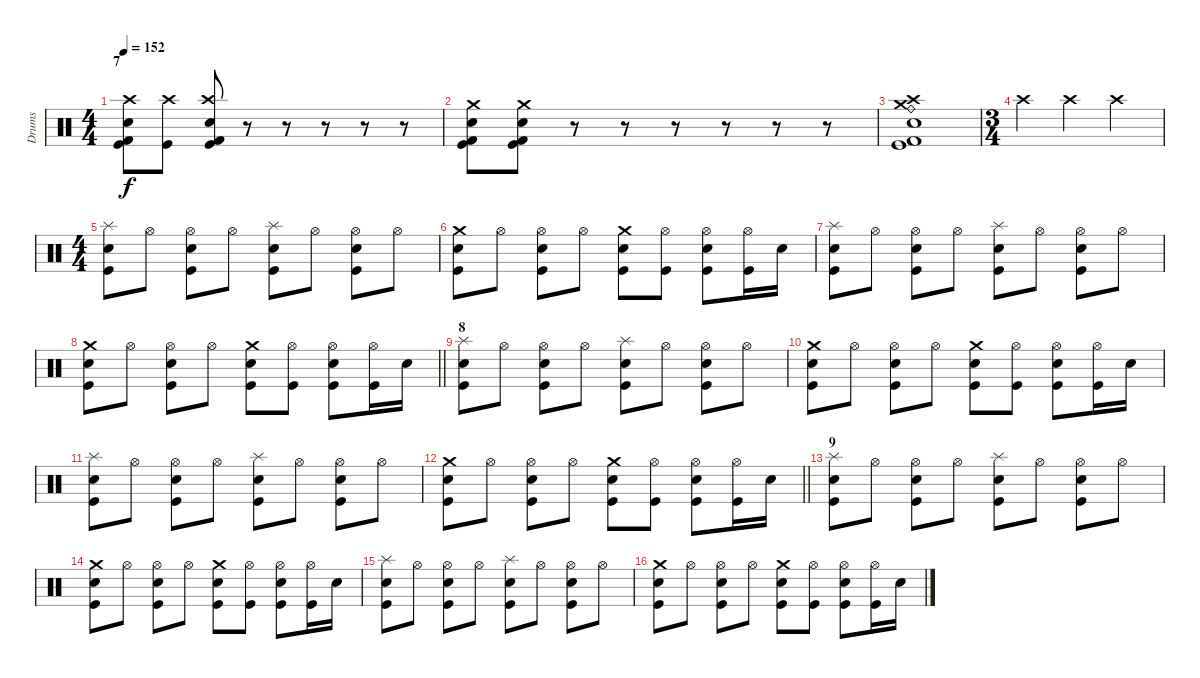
\track ("Drums" "Drums") {instrument percussion}
\staff {score}
\articulation defaults
\ts (4 4)
\section ("" "7")
\tempo 152
\clef neutral
\ks c
("Electric Snare (hit)" "Crash high (hit)" "Kick (hit) 2" "Kick (hit)").8{dy f} ("Crash high (hit)" "Kick (hit)").8 ("Electric Snare (hit)" "Crash high (hit)" "Kick (hit) 2" "Kick (hit)").8 r.8 r.8 r.8 r.8 r.8 |
("Electric Snare (hit)" "Crash medium (hit)" "Kick (hit) 2" "Kick (hit)").8 ("Electric Snare (hit)" "Crash medium (hit)" "Kick (hit) 2" "Kick (hit)").8 r.8 r.8 r.8 r.8 r.8 r.8 |
("Electric Snare (hit)" "Crash high (hit)" "Crash medium (hit)" "Kick (hit)" "Kick (hit) 2" "Ride (bell)").1 |
\ts (3 4)
"Crash high (hit)".4 "Crash high (hit)".4 "Crash high (hit)".4 |
\ts (4 4)
("Splash (hit)" "Electric Snare (hit)" "Kick (hit)").8 "Hi-Hat (open)".8 ("Hi-Hat (open)" "Electric Snare (hit)" "Kick (hit)").8 "Hi-Hat (open)".8 ("Splash (hit)" "Electric Snare (hit)" "Kick (hit)").8 "Hi-Hat (open)".8 ("Hi-Hat (open)" "Electric Snare (hit)" "Kick (hit)").8 "Hi-Hat (open)".8 |
("Crash medium (hit)" "Electric Snare (hit)" "Kick (hit)").8 "Hi-Hat (open)".8 ("Hi-Hat (open)" "Electric Snare (hit)" "Kick (hit)").8 "Hi-Hat (open)".8 ("Crash medium (hit)" "Electric Snare (hit)" "Kick (hit)").8 ("Hi-Hat (open)" "Kick (hit)").8 ("Hi-Hat (open)" "Electric Snare (hit)" "Kick (hit)").8 ("Hi-Hat (open)" "Kick (hit)").16 "Electric Snare (hit)".16 |
("Splash (hit)" "Electric Snare (hit)" "Kick (hit)").8 "Hi-Hat (open)".8 ("Hi-Hat (open)" "Electric Snare (hit)" "Kick (hit)").8 "Hi-Hat (open)".8 ("Splash (hit)" "Electric Snare (hit)" "Kick (hit)").8 "Hi-Hat (open)".8 ("Hi-Hat (open)" "Electric Snare (hit)" "Kick (hit)").8 "Hi-Hat (open)".8 |
\barLineRight lightlight
("Crash medium (hit)" "Electric Snare (hit)" "Kick (hit)").8 "Hi-Hat (open)".8 ("Hi-Hat (open)" "Electric Snare (hit)" "Kick (hit)").8 "Hi-Hat (open)".8 ("Crash medium (hit)" "Electric Snare (hit)" "Kick (hit)").8 ("Hi-Hat (open)" "Kick (hit)").8 ("Hi-Hat (open)" "Electric Snare (hit)" "Kick (hit)").8 ("Hi-Hat (open)" "Kick (hit)").16 "Electric Snare (hit)".16 |
\section ("" "8")
("Splash (hit)" "Electric Snare (hit)" "Kick (hit)").8 "Hi-Hat (open)".8 ("Hi-Hat (open)" "Electric Snare (hit)" "Kick (hit)").8 "Hi-Hat (open)".8 ("Splash (hit)" "Electric Snare (hit)" "Kick (hit)").8 "Hi-Hat (open)".8 ("Hi-Hat (open)" "Electric Snare (hit)" "Kick (hit)").8 "Hi-Hat (open)".8 |
("Crash medium (hit)" "Electric Snare (hit)" "Kick (hit)").8 "Hi-Hat (open)".8 ("Hi-Hat (open)" "Electric Snare (hit)" "Kick (hit)").8 "Hi-Hat (open)".8 ("Crash medium (hit)" "Electric Snare (hit)" "Kick (hit)").8 ("Hi-Hat (open)" "Kick (hit)").8 ("Hi-Hat (open)" "Electric Snare (hit)" "Kick (hit)").8 ("Hi-Hat (open)" "Kick (hit)").16 "Electric Snare (hit)".16 |
("Splash (hit)" "Electric Snare (hit)" "Kick (hit)").8 "Hi-Hat (open)".8 ("Hi-Hat (open)" "Electric Snare (hit)" "Kick (hit)").8 "Hi-Hat (open)".8 ("Splash (hit)" "Electric Snare (hit)" "Kick (hit)").8 "Hi-Hat (open)".8 ("Hi-Hat (open)" "Electric Snare (hit)" "Kick (hit)").8 "Hi-Hat (open)".8 |
\barLineRight lightlight
("Crash medium (hit)" "Electric Snare (hit)" "Kick (hit)").8 "Hi-Hat (open)".8 ("Hi-Hat (open)" "Electric Snare (hit)" "Kick (hit)").8 "Hi-Hat (open)".8 ("Crash medium (hit)" "Electric Snare (hit)" "Kick (hit)").8 ("Hi-Hat (open)" "Kick (hit)").8 ("Hi-Hat (open)" "Electric Snare (hit)" "Kick (hit)").8 ("Hi-Hat (open)" "Kick (hit)").16 "Electric Snare (hit)".16 |
\section ("" "9")
("Splash (hit)" "Electric Snare (hit)" "Kick (hit)").8 "Hi-Hat (open)".8 ("Hi-Hat (open)" "Electric Snare (hit)" "Kick (hit)").8 "Hi-Hat (open)".8 ("Splash (hit)" "Electric Snare (hit)" "Kick (hit)").8 "Hi-Hat (open)".8 ("Hi-Hat (open)" "Electric Snare (hit)" "Kick (hit)").8 "Hi-Hat (open)".8 |
("Crash medium (hit)" "Electric Snare (hit)" "Kick (hit)").8 "Hi-Hat (open)".8 ("Hi-Hat (open)" "Electric Snare (hit)" "Kick (hit)").8 "Hi-Hat (open)".8 ("Crash medium (hit)" "Electric Snare (hit)" "Kick (hit)").8 ("Hi-Hat (open)" "Kick (hit)").8 ("Hi-Hat (open)" "Electric Snare (hit)" "Kick (hit)").8 ("Hi-Hat (open)" "Kick (hit)").16 "Electric Snare (hit)".16 |
("Splash (hit)" "Electric Snare (hit)" "Kick (hit)").8 "Hi-Hat (open)".8 ("Hi-Hat (open)" "Electric Snare (hit)" "Kick (hit)").8 "Hi-Hat (open)".8 ("Splash (hit)" "Electric Snare (hit)" "Kick (hit)").8 "Hi-Hat (open)".8 ("Hi-Hat (open)" "Electric Snare (hit)" "Kick (hit)").8 "Hi-Hat (open)".8 |
("Crash medium (hit)" "Electric Snare (hit)" "Kick (hit)").8 "Hi-Hat (open)".8 ("Hi-Hat (open)" "Electric Snare (hit)" "Kick (hit)").8 "Hi-Hat (open)".8 ("Crash medium (hit)" "Electric Snare (hit)" "Kick (hit)").8 ("Hi-Hat (open)" "Kick (hit)").8 ("Hi-Hat (open)" "Electric Snare (hit)" "Kick (hit)").8 ("Hi-Hat (open)" "Kick (hit)").16 "Electric Snare (hit)".16
